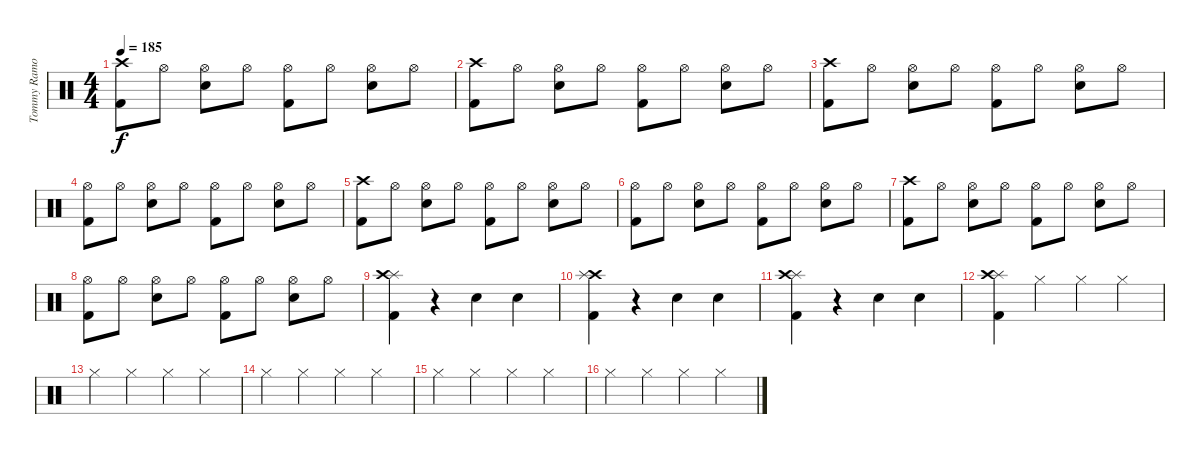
\track ("Tommy Ramone" "Tommy Ramo") {instrument percussion}
\staff {score}
\articulation defaults
\ts (4 4)
\tempo 185
\clef neutral
\ks c
("Crash high (hit)" "Kick (hit) 2").8{dy f} "Hi-Hat (open)".8 ("Snare (hit) 2" "Hi-Hat (open)").8 "Hi-Hat (open)".8 ("Kick (hit) 2" "Hi-Hat (open)").8 "Hi-Hat (open)".8 ("Snare (hit) 2" "Hi-Hat (open)").8 "Hi-Hat (open)".8 |
("Crash high (hit)" "Kick (hit) 2").8 "Hi-Hat (open)".8 ("Snare (hit) 2" "Hi-Hat (open)").8 "Hi-Hat (open)".8 ("Kick (hit) 2" "Hi-Hat (open)").8 "Hi-Hat (open)".8 ("Snare (hit) 2" "Hi-Hat (open)").8 "Hi-Hat (open)".8 |
("Crash high (hit)" "Kick (hit) 2").8 "Hi-Hat (open)".8 ("Snare (hit) 2" "Hi-Hat (open)").8 "Hi-Hat (open)".8 ("Kick (hit) 2" "Hi-Hat (open)").8 "Hi-Hat (open)".8 ("Snare (hit) 2" "Hi-Hat (open)").8 "Hi-Hat (open)".8 |
("Hi-Hat (open)" "Kick (hit) 2").8 "Hi-Hat (open)".8 ("Snare (hit) 2" "Hi-Hat (open)").8 "Hi-Hat (open)".8 ("Kick (hit) 2" "Hi-Hat (open)").8 "Hi-Hat (open)".8 ("Snare (hit) 2" "Hi-Hat (open)").8 "Hi-Hat (open)".8 |
("Crash high (hit)" "Kick (hit) 2").8 "Hi-Hat (open)".8 ("Snare (hit) 2" "Hi-Hat (open)").8 "Hi-Hat (open)".8 ("Kick (hit) 2" "Hi-Hat (open)").8 "Hi-Hat (open)".8 ("Snare (hit) 2" "Hi-Hat (open)").8 "Hi-Hat (open)".8 |
("Hi-Hat (open)" "Kick (hit) 2").8 "Hi-Hat (open)".8 ("Snare (hit) 2" "Hi-Hat (open)").8 "Hi-Hat (open)".8 ("Kick (hit) 2" "Hi-Hat (open)").8 "Hi-Hat (open)".8 ("Snare (hit) 2" "Hi-Hat (open)").8 "Hi-Hat (open)".8 |
("Crash high (hit)" "Kick (hit) 2").8 "Hi-Hat (open)".8 ("Snare (hit) 2" "Hi-Hat (open)").8 "Hi-Hat (open)".8 ("Kick (hit) 2" "Hi-Hat (open)").8 "Hi-Hat (open)".8 ("Snare (hit) 2" "Hi-Hat (open)").8 "Hi-Hat (open)".8 |
("Hi-Hat (open)" "Kick (hit) 2").8 "Hi-Hat (open)".8 ("Snare (hit) 2" "Hi-Hat (open)").8 "Hi-Hat (open)".8 ("Kick (hit) 2" "Hi-Hat (open)").8 "Hi-Hat (open)".8 ("Snare (hit) 2" "Hi-Hat (open)").8 "Hi-Hat (open)".8 |
("Splash (hit)" "Crash high (hit)" "Kick (hit) 2").4 r.4 "Snare (hit) 2".4 "Snare (hit) 2".4 |
("Kick (hit) 2" "Crash high (hit)" "Splash (hit)").4 r.4 "Snare (hit) 2".4 "Snare (hit) 2".4 |
("Kick (hit) 2" "Splash (hit)" "Crash high (hit)").4 r.4 "Snare (hit) 2".4 "Snare (hit) 2".4 |
("Splash (hit)" "Crash high (hit)" "Kick (hit) 2").4 "Hi-Hat (closed)".4 "Hi-Hat (closed)".4 "Hi-Hat (closed)".4 |
"Hi-Hat (closed)".4 "Hi-Hat (closed)".4 "Hi-Hat (closed)".4 "Hi-Hat (closed)".4 |
"Hi-Hat (closed)".4 "Hi-Hat (closed)".4 "Hi-Hat (closed)".4 "Hi-Hat (closed)".4 |
"Hi-Hat (closed)".4 "Hi-Hat (closed)".4 "Hi-Hat (closed)".4 "Hi-Hat (closed)".4 |
"Hi-Hat (closed)".4 "Hi-Hat (closed)".4 "Hi-Hat (closed)".4 "Hi-Hat (closed)".4
